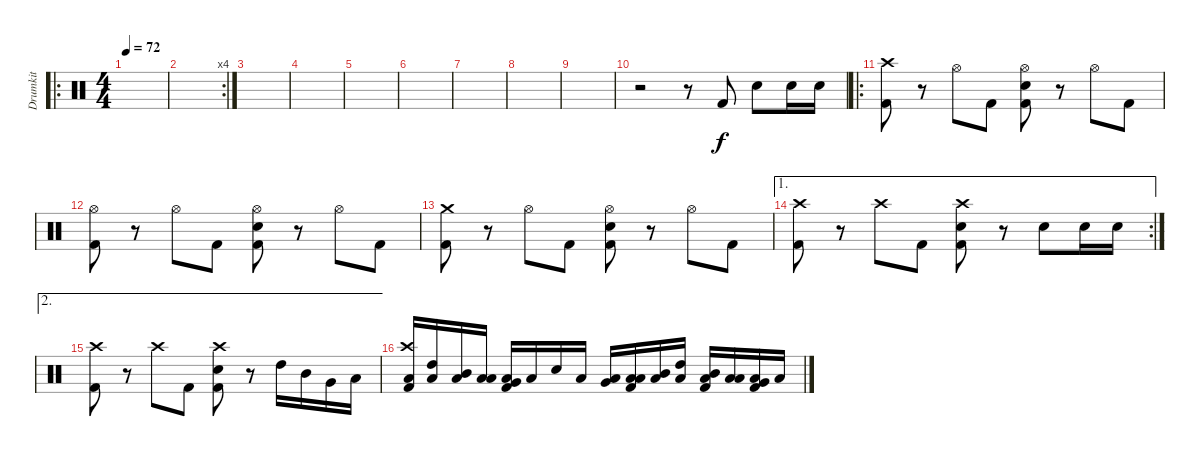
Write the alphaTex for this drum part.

\track ("Drumkit" "Drumkit") {instrument percussion}
\staff {score}
\articulation defaults
\ro
\ts (4 4)
\tempo 72
\clef neutral
\ks c
|
\rc 4
|
|
|
|
|
|
|
|
r.2 r.8 "Kick (hit) 2".8 "Snare (hit) 2".8 "Snare (hit) 2".16 "Snare (hit) 2".16 |
\ro
("Crash high (hit)" "Kick (hit) 2").8 r.8 "Hi-Hat (open)".8 "Kick (hit) 2".8 ("Hi-Hat (open)" "Kick (hit) 2" "Snare (hit) 2").8 r.8 "Hi-Hat (open)".8 "Kick (hit) 2".8 |
("Hi-Hat (open)" "Kick (hit) 2").8 r.8 "Hi-Hat (open)".8 "Kick (hit) 2".8 ("Hi-Hat (open)" "Kick (hit) 2" "Snare (hit) 2").8 r.8 "Hi-Hat (open)".8 "Kick (hit) 2".8 |
("Crash medium (hit)" "Kick (hit) 2").8 r.8 "Hi-Hat (open)".8 "Kick (hit) 2".8 ("Hi-Hat (open)" "Kick (hit) 2" "Snare (hit) 2").8 r.8 "Hi-Hat (open)".8 "Kick (hit) 2".8 |
\ae 1
\rc 2
("Crash high (hit)" "Kick (hit) 2").8 r.8 "Crash high (hit)".8 "Kick (hit) 2".8 ("Crash high (hit)" "Kick (hit) 2" "Snare (hit) 2").8 r.8 "Snare (hit) 2".8 "Snare (hit) 2".16 "Snare (hit) 2".16 |
\ae 2
("Crash high (hit)" "Kick (hit) 2").8 r.8 "Crash high (hit)".8 "Kick (hit) 2".8 ("Crash high (hit)" "Kick (hit) 2" "Snare (hit) 2").8 r.8 "High Tom (hit)".16 "Mid Tom (hit)".16 "Very Low Tom (hit)".16 "Low Floor Tom (hit)".16 |
("Low Floor Tom (hit)" "Kick (hit) 2" "Crash high (hit)").16 ("Low Floor Tom (hit)" "High Tom (hit)").16 ("Low Floor Tom (hit)" "Mid Tom (hit)").16 ("Low Floor Tom (hit)" "Low Tom (hit)").16 ("Low Floor Tom (hit)" "Kick (hit) 2" "Very Low Tom (hit)").16 "Low Floor Tom (hit)".16 "Snare (hit) 2".16 "Low Floor Tom (hit)".16 ("Low Floor Tom (hit)" "Very Low Tom (hit)").16 ("Low Floor Tom (hit)" "Kick (hit) 2" "Low Tom (hit)").16 ("Low Floor Tom (hit)" "Mid Tom (hit)").16 ("Low Floor Tom (hit)" "High Tom (hit)").16 ("Low Floor Tom (hit)" "Mid Tom (hit)" "Kick (hit) 2").16 ("Low Floor Tom (hit)" "Low Tom (hit)").16 ("Low Floor Tom (hit)" "Very Low Tom (hit)" "Kick (hit) 2").16 "Low Floor Tom (hit)".16
